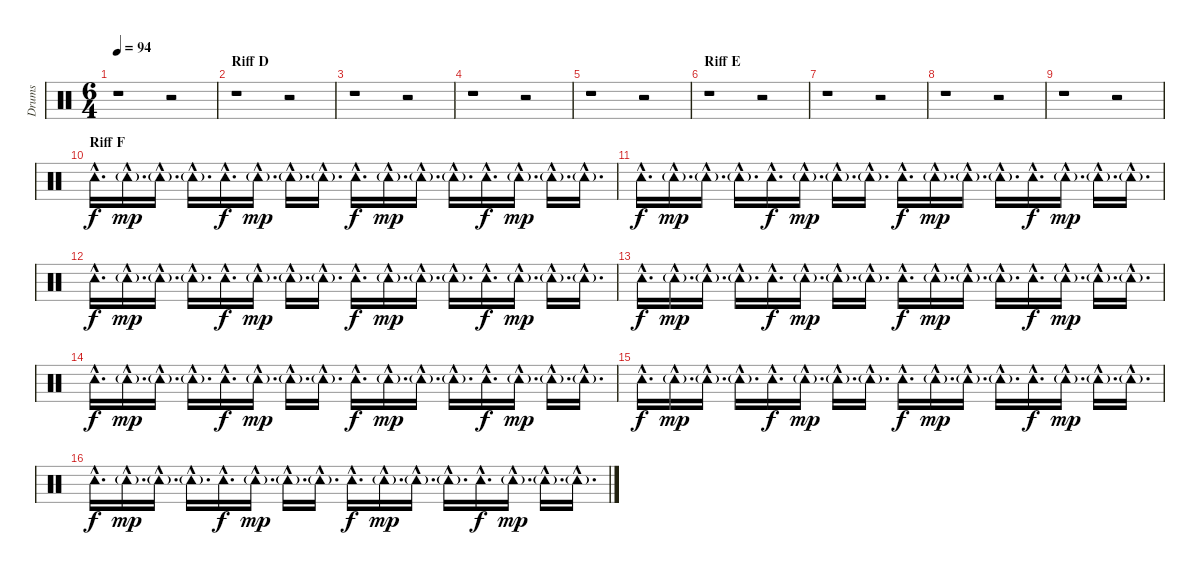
\track ("Drums" "Drums") {instrument percussion}
\staff {score}
\articulation defaults
\ts (6 4)
\tempo 94
\clef neutral
\ks c
r.1{dy f} r.2 |
\section ("" "Riff D")
r.1 r.2 |
r.1 r.2 |
r.1 r.2 |
r.1 r.2 |
\section ("" "Riff E")
r.1 r.2 |
r.1 r.2 |
r.1 r.2 |
r.1 r.2 |
\section ("" "Riff F")
"Tambourine (hit)"{hac}.16{d} "Tambourine (hit)"{g hac}.16{d dy mp} "Tambourine (hit)"{g hac}.16{d} "Tambourine (hit)"{g hac}.16{d} "Tambourine (hit)"{hac}.16{d dy f} "Tambourine (hit)"{g hac}.16{d dy mp} "Tambourine (hit)"{g hac}.16{d} "Tambourine (hit)"{g hac}.16{d} "Tambourine (hit)"{hac}.16{d dy f} "Tambourine (hit)"{g hac}.16{d dy mp} "Tambourine (hit)"{g hac}.16{d} "Tambourine (hit)"{g hac}.16{d} "Tambourine (hit)"{hac}.16{d dy f} "Tambourine (hit)"{g hac}.16{d dy mp} "Tambourine (hit)"{g hac}.16{d} "Tambourine (hit)"{g hac}.16{d} |
"Tambourine (hit)"{hac}.16{d dy f} "Tambourine (hit)"{g hac}.16{d dy mp} "Tambourine (hit)"{g hac}.16{d} "Tambourine (hit)"{g hac}.16{d} "Tambourine (hit)"{hac}.16{d dy f} "Tambourine (hit)"{g hac}.16{d dy mp} "Tambourine (hit)"{g hac}.16{d} "Tambourine (hit)"{g hac}.16{d} "Tambourine (hit)"{hac}.16{d dy f} "Tambourine (hit)"{g hac}.16{d dy mp} "Tambourine (hit)"{g hac}.16{d} "Tambourine (hit)"{g hac}.16{d} "Tambourine (hit)"{hac}.16{d dy f} "Tambourine (hit)"{g hac}.16{d dy mp} "Tambourine (hit)"{g hac}.16{d} "Tambourine (hit)"{g hac}.16{d} |
"Tambourine (hit)"{hac}.16{d dy f} "Tambourine (hit)"{g hac}.16{d dy mp} "Tambourine (hit)"{g hac}.16{d} "Tambourine (hit)"{g hac}.16{d} "Tambourine (hit)"{hac}.16{d dy f} "Tambourine (hit)"{g hac}.16{d dy mp} "Tambourine (hit)"{g hac}.16{d} "Tambourine (hit)"{g hac}.16{d} "Tambourine (hit)"{hac}.16{d dy f} "Tambourine (hit)"{g hac}.16{d dy mp} "Tambourine (hit)"{g hac}.16{d} "Tambourine (hit)"{g hac}.16{d} "Tambourine (hit)"{hac}.16{d dy f} "Tambourine (hit)"{g hac}.16{d dy mp} "Tambourine (hit)"{g hac}.16{d} "Tambourine (hit)"{g hac}.16{d} |
"Tambourine (hit)"{hac}.16{d dy f} "Tambourine (hit)"{g hac}.16{d dy mp} "Tambourine (hit)"{g hac}.16{d} "Tambourine (hit)"{g hac}.16{d} "Tambourine (hit)"{hac}.16{d dy f} "Tambourine (hit)"{g hac}.16{d dy mp} "Tambourine (hit)"{g hac}.16{d} "Tambourine (hit)"{g hac}.16{d} "Tambourine (hit)"{hac}.16{d dy f} "Tambourine (hit)"{g hac}.16{d dy mp} "Tambourine (hit)"{g hac}.16{d} "Tambourine (hit)"{g hac}.16{d} "Tambourine (hit)"{hac}.16{d dy f} "Tambourine (hit)"{g hac}.16{d dy mp} "Tambourine (hit)"{g hac}.16{d} "Tambourine (hit)"{g hac}.16{d} |
"Tambourine (hit)"{hac}.16{d dy f} "Tambourine (hit)"{g hac}.16{d dy mp} "Tambourine (hit)"{g hac}.16{d} "Tambourine (hit)"{g hac}.16{d} "Tambourine (hit)"{hac}.16{d dy f} "Tambourine (hit)"{g hac}.16{d dy mp} "Tambourine (hit)"{g hac}.16{d} "Tambourine (hit)"{g hac}.16{d} "Tambourine (hit)"{hac}.16{d dy f} "Tambourine (hit)"{g hac}.16{d dy mp} "Tambourine (hit)"{g hac}.16{d} "Tambourine (hit)"{g hac}.16{d} "Tambourine (hit)"{hac}.16{d dy f} "Tambourine (hit)"{g hac}.16{d dy mp} "Tambourine (hit)"{g hac}.16{d} "Tambourine (hit)"{g hac}.16{d} |
"Tambourine (hit)"{hac}.16{d dy f} "Tambourine (hit)"{g hac}.16{d dy mp} "Tambourine (hit)"{g hac}.16{d} "Tambourine (hit)"{g hac}.16{d} "Tambourine (hit)"{hac}.16{d dy f} "Tambourine (hit)"{g hac}.16{d dy mp} "Tambourine (hit)"{g hac}.16{d} "Tambourine (hit)"{g hac}.16{d} "Tambourine (hit)"{hac}.16{d dy f} "Tambourine (hit)"{g hac}.16{d dy mp} "Tambourine (hit)"{g hac}.16{d} "Tambourine (hit)"{g hac}.16{d} "Tambourine (hit)"{hac}.16{d dy f} "Tambourine (hit)"{g hac}.16{d dy mp} "Tambourine (hit)"{g hac}.16{d} "Tambourine (hit)"{g hac}.16{d} |
"Tambourine (hit)"{hac}.16{d dy f} "Tambourine (hit)"{g hac}.16{d dy mp} "Tambourine (hit)"{g hac}.16{d} "Tambourine (hit)"{g hac}.16{d} "Tambourine (hit)"{hac}.16{d dy f} "Tambourine (hit)"{g hac}.16{d dy mp} "Tambourine (hit)"{g hac}.16{d} "Tambourine (hit)"{g hac}.16{d} "Tambourine (hit)"{hac}.16{d dy f} "Tambourine (hit)"{g hac}.16{d dy mp} "Tambourine (hit)"{g hac}.16{d} "Tambourine (hit)"{g hac}.16{d} "Tambourine (hit)"{hac}.16{d dy f} "Tambourine (hit)"{g hac}.16{d dy mp} "Tambourine (hit)"{g hac}.16{d} "Tambourine (hit)"{g hac}.16{d}
